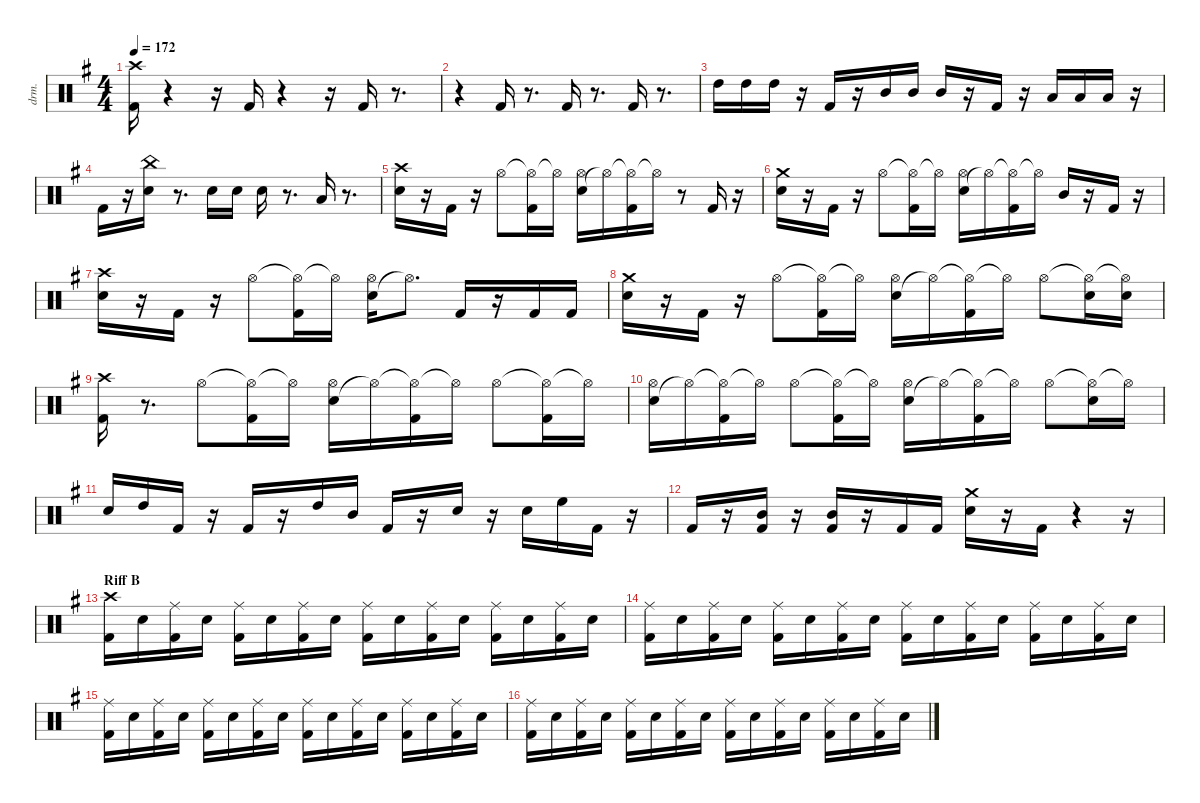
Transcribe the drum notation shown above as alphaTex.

\defaultSystemsLayout 4
\hideDynamics
\bracketExtendMode nobrackets
\otherSystemsTrackNameOrientation horizontal
\track ("Shinya" "drm.") {instrument percussion}
\staff {score}
\articulation defaults
\ts (4 4)
\tempo 172
\clef neutral
\ks eminor
("Kick (hit) 2"{acc forcenatural} "Crash high (hit)"{acc #}).16{dy fff} r.4 r.16 "Kick (hit) 2"{acc forcenatural}.16 r.4 r.16 "Kick (hit) 2"{acc forcenatural}.16 r.8{d} |
r.4 "Kick (hit) 2"{acc forcenatural}.16 r.8{d} "Kick (hit) 2"{acc forcenatural}.16 r.8{d} "Kick (hit) 2"{acc forcenatural}.16 r.8{d} |
"High Tom (hit)"{acc forcenatural}.16 "High Tom (hit)"{acc forcenatural}.16 "High Tom (hit)"{acc forcenatural}.16 r.16 "Kick (hit) 2"{acc forcenatural}.16 r.16 "Mid Tom (hit)"{acc forcenatural}.16 "Mid Tom (hit)"{acc forcenatural}.16 "Mid Tom (hit)"{acc forcenatural}.16 r.16 "Kick (hit) 2"{acc forcenatural}.16 r.16 "Low Tom (hit)"{acc forcenatural}.16 "Low Tom (hit)"{acc forcenatural}.16 "Low Tom (hit)"{acc forcenatural}.16 r.16 |
"Kick (hit) 2"{acc forcenatural}.16 r.16 ("Snare (hit) 2"{acc forcenatural} "China (hit)"{acc forcenatural}).16 r.8{d} "Snare (hit) 2"{acc forcenatural}.16 "Snare (hit) 2"{acc forcenatural}.16 "Snare (hit) 2"{acc forcenatural}.16 r.8{d} "Low Tom (hit)"{acc forcenatural}.16 r.8{d} |
("Snare (hit) 2"{acc forcenatural} "Crash high (hit)"{acc #}).16 r.16 "Kick (hit) 2"{acc forcenatural}.16 r.16 "Hi-Hat (open)"{acc #}.8 ("Hi-Hat (open)"{t acc #} "Kick (hit) 2"{acc forcenatural}).16 "Hi-Hat (open)"{t acc #}.16 ("Snare (hit) 2"{acc forcenatural} "Hi-Hat (open)"{acc #}).16 "Hi-Hat (open)"{t acc #}.16 ("Hi-Hat (open)"{t acc #} "Kick (hit) 2"{acc forcenatural}).16 "Hi-Hat (open)"{t acc #}.16 r.8 "Kick (hit) 2"{acc forcenatural}.16 r.16 |
("Snare (hit) 2"{acc forcenatural} "Crash medium (hit)"{acc forcenatural}).16 r.16 "Kick (hit) 2"{acc forcenatural}.16 r.16 "Hi-Hat (open)"{acc #}.8 ("Hi-Hat (open)"{t acc #} "Kick (hit) 2"{acc forcenatural}).16 "Hi-Hat (open)"{t acc #}.16 ("Snare (hit) 2"{acc forcenatural} "Hi-Hat (open)"{acc #}).16 "Hi-Hat (open)"{t acc #}.16 ("Hi-Hat (open)"{t acc #} "Kick (hit) 2"{acc forcenatural}).16 "Hi-Hat (open)"{t acc #}.16 "Mid Tom (hit)"{acc forcenatural}.16 r.16 "Kick (hit) 2"{acc forcenatural}.16 r.16 |
("Snare (hit) 2"{acc forcenatural} "Crash high (hit)"{acc #}).16 r.16 "Kick (hit) 2"{acc forcenatural}.16 r.16 "Hi-Hat (open)"{acc #}.8 ("Hi-Hat (open)"{t acc #} "Kick (hit) 2"{acc forcenatural}).16 "Hi-Hat (open)"{t acc #}.16 ("Snare (hit) 2"{acc forcenatural} "Hi-Hat (open)"{acc #}).16 "Hi-Hat (open)"{t acc #}.8{d} "Kick (hit) 2"{acc forcenatural}.16 r.16 "Kick (hit) 2"{acc forcenatural}.16 "Kick (hit) 2"{acc forcenatural}.16 |
("Snare (hit) 2"{acc forcenatural} "Crash medium (hit)"{acc forcenatural}).16 r.16 "Kick (hit) 2"{acc forcenatural}.16 r.16 "Hi-Hat (open)"{acc #}.8 ("Hi-Hat (open)"{t acc #} "Kick (hit) 2"{acc forcenatural}).16 "Hi-Hat (open)"{t acc #}.16 ("Snare (hit) 2"{acc forcenatural} "Hi-Hat (open)"{acc #}).16 "Hi-Hat (open)"{t acc #}.16 ("Hi-Hat (open)"{t acc #} "Kick (hit) 2"{acc forcenatural}).16 "Hi-Hat (open)"{t acc #}.16 "Hi-Hat (open)"{acc #}.8 ("Hi-Hat (open)"{t acc #} "Snare (hit) 2"{acc forcenatural}).16 ("Hi-Hat (open)"{t acc #} "Snare (hit) 2"{acc forcenatural}).16 |
("Kick (hit) 2"{acc forcenatural} "Crash high (hit)"{acc #}).16 r.8{d} "Hi-Hat (open)"{acc #}.8 ("Hi-Hat (open)"{t acc #} "Kick (hit) 2"{acc forcenatural}).16 "Hi-Hat (open)"{t acc #}.16 ("Snare (hit) 2"{acc forcenatural} "Hi-Hat (open)"{acc #}).16 "Hi-Hat (open)"{t acc #}.16 ("Hi-Hat (open)"{t acc #} "Kick (hit) 2"{acc forcenatural}).16 "Hi-Hat (open)"{t acc #}.16 "Hi-Hat (open)"{acc #}.8 ("Hi-Hat (open)"{t acc #} "Kick (hit) 2"{acc forcenatural}).16 "Hi-Hat (open)"{t acc #}.16 |
("Snare (hit) 2"{acc forcenatural} "Hi-Hat (open)"{acc #}).16 "Hi-Hat (open)"{t acc #}.16 ("Hi-Hat (open)"{t acc #} "Kick (hit) 2"{acc forcenatural}).16 "Hi-Hat (open)"{t acc #}.16 "Hi-Hat (open)"{acc #}.8 ("Hi-Hat (open)"{t acc #} "Kick (hit) 2"{acc forcenatural}).16 "Hi-Hat (open)"{t acc #}.16 ("Snare (hit) 2"{acc forcenatural} "Hi-Hat (open)"{acc #}).16 "Hi-Hat (open)"{t acc #}.16 ("Hi-Hat (open)"{t acc #} "Kick (hit) 2"{acc forcenatural}).16 "Hi-Hat (open)"{t acc #}.16 "Hi-Hat (open)"{acc #}.8 ("Hi-Hat (open)"{t acc #} "Snare (hit) 2"{acc forcenatural}).16 "Hi-Hat (open)"{t acc #}.16 |
"Snare (hit) 2"{acc forcenatural}.16 "High Tom (hit)"{acc forcenatural}.16 "Kick (hit) 2"{acc forcenatural}.16 r.16 "Kick (hit) 2"{acc forcenatural}.16 r.16 "High Tom (hit)"{acc forcenatural}.16 "Mid Tom (hit)"{acc forcenatural}.16 "Kick (hit) 2"{acc forcenatural}.16 r.16 "Snare (hit) 2"{acc forcenatural}.16 r.16 "Snare (hit) 2"{acc forcenatural}.16 "High Floor Tom (hit)"{acc forcenatural}.16 "Kick (hit) 2"{acc forcenatural}.16 r.16 |
"Kick (hit) 2"{acc forcenatural}.16 r.16 ("Kick (hit) 2"{acc forcenatural} "Mid Tom (hit)"{acc forcenatural}).16 r.16 ("Kick (hit) 2"{acc forcenatural} "Mid Tom (hit)"{acc forcenatural}).16 r.16 "Kick (hit) 2"{acc forcenatural}.16 "Kick (hit) 2"{acc forcenatural}.16 ("Snare (hit) 2"{acc forcenatural} "Crash medium (hit)"{acc forcenatural}).16 r.16 "Kick (hit) 2"{acc forcenatural}.16 r.4 r.16 |
\section ("" "Riff B")
("Kick (hit) 2"{acc forcenatural} "Crash high (hit)"{acc #}).16 "Snare (hit) 2"{acc forcenatural}.16 ("Kick (hit) 2"{acc forcenatural} "Ride (middle)"{acc #}).16 "Snare (hit) 2"{acc forcenatural}.16 ("Kick (hit) 2"{acc forcenatural} "Ride (middle)"{acc #}).16 "Snare (hit) 2"{acc forcenatural}.16 ("Kick (hit) 2"{acc forcenatural} "Ride (middle)"{acc #}).16 "Snare (hit) 2"{acc forcenatural}.16 ("Kick (hit) 2"{acc forcenatural} "Ride (middle)"{acc #}).16 "Snare (hit) 2"{acc forcenatural}.16 ("Kick (hit) 2"{acc forcenatural} "Ride (middle)"{acc #}).16 "Snare (hit) 2"{acc forcenatural}.16 ("Kick (hit) 2"{acc forcenatural} "Ride (middle)"{acc #}).16 "Snare (hit) 2"{acc forcenatural}.16 ("Kick (hit) 2"{acc forcenatural} "Ride (middle)"{acc #}).16 "Snare (hit) 2"{acc forcenatural}.16 |
("Kick (hit) 2"{acc forcenatural} "Ride (middle)"{acc #}).16 "Snare (hit) 2"{acc forcenatural}.16 ("Kick (hit) 2"{acc forcenatural} "Ride (middle)"{acc #}).16 "Snare (hit) 2"{acc forcenatural}.16 ("Kick (hit) 2"{acc forcenatural} "Ride (middle)"{acc #}).16 "Snare (hit) 2"{acc forcenatural}.16 ("Kick (hit) 2"{acc forcenatural} "Ride (middle)"{acc #}).16 "Snare (hit) 2"{acc forcenatural}.16 ("Kick (hit) 2"{acc forcenatural} "Ride (middle)"{acc #}).16 "Snare (hit) 2"{acc forcenatural}.16 ("Kick (hit) 2"{acc forcenatural} "Ride (middle)"{acc #}).16 "Snare (hit) 2"{acc forcenatural}.16 ("Kick (hit) 2"{acc forcenatural} "Ride (middle)"{acc #}).16 "Snare (hit) 2"{acc forcenatural}.16 ("Kick (hit) 2"{acc forcenatural} "Ride (middle)"{acc #}).16 "Snare (hit) 2"{acc forcenatural}.16 |
("Kick (hit) 2"{acc forcenatural} "Ride (middle)"{acc #}).16 "Snare (hit) 2"{acc forcenatural}.16 ("Kick (hit) 2"{acc forcenatural} "Ride (middle)"{acc #}).16 "Snare (hit) 2"{acc forcenatural}.16 ("Kick (hit) 2"{acc forcenatural} "Ride (middle)"{acc #}).16 "Snare (hit) 2"{acc forcenatural}.16 ("Kick (hit) 2"{acc forcenatural} "Ride (middle)"{acc #}).16 "Snare (hit) 2"{acc forcenatural}.16 ("Kick (hit) 2"{acc forcenatural} "Ride (middle)"{acc #}).16 "Snare (hit) 2"{acc forcenatural}.16 ("Kick (hit) 2"{acc forcenatural} "Ride (middle)"{acc #}).16 "Snare (hit) 2"{acc forcenatural}.16 ("Kick (hit) 2"{acc forcenatural} "Ride (middle)"{acc #}).16 "Snare (hit) 2"{acc forcenatural}.16 ("Kick (hit) 2"{acc forcenatural} "Ride (middle)"{acc #}).16 "Snare (hit) 2"{acc forcenatural}.16 |
("Kick (hit) 2"{acc forcenatural} "Ride (middle)"{acc #}).16 "Snare (hit) 2"{acc forcenatural}.16 ("Kick (hit) 2"{acc forcenatural} "Ride (middle)"{acc #}).16 "Snare (hit) 2"{acc forcenatural}.16 ("Kick (hit) 2"{acc forcenatural} "Ride (middle)"{acc #}).16 "Snare (hit) 2"{acc forcenatural}.16 ("Kick (hit) 2"{acc forcenatural} "Ride (middle)"{acc #}).16 "Snare (hit) 2"{acc forcenatural}.16 ("Kick (hit) 2"{acc forcenatural} "Ride (middle)"{acc #}).16 "Snare (hit) 2"{acc forcenatural}.16 ("Kick (hit) 2"{acc forcenatural} "Ride (middle)"{acc #}).16 "Snare (hit) 2"{acc forcenatural}.16 ("Kick (hit) 2"{acc forcenatural} "Ride (middle)"{acc #}).16 "Snare (hit) 2"{acc forcenatural}.16 ("Kick (hit) 2"{acc forcenatural} "Ride (middle)"{acc #}).16 "Snare (hit) 2"{acc forcenatural}.16
